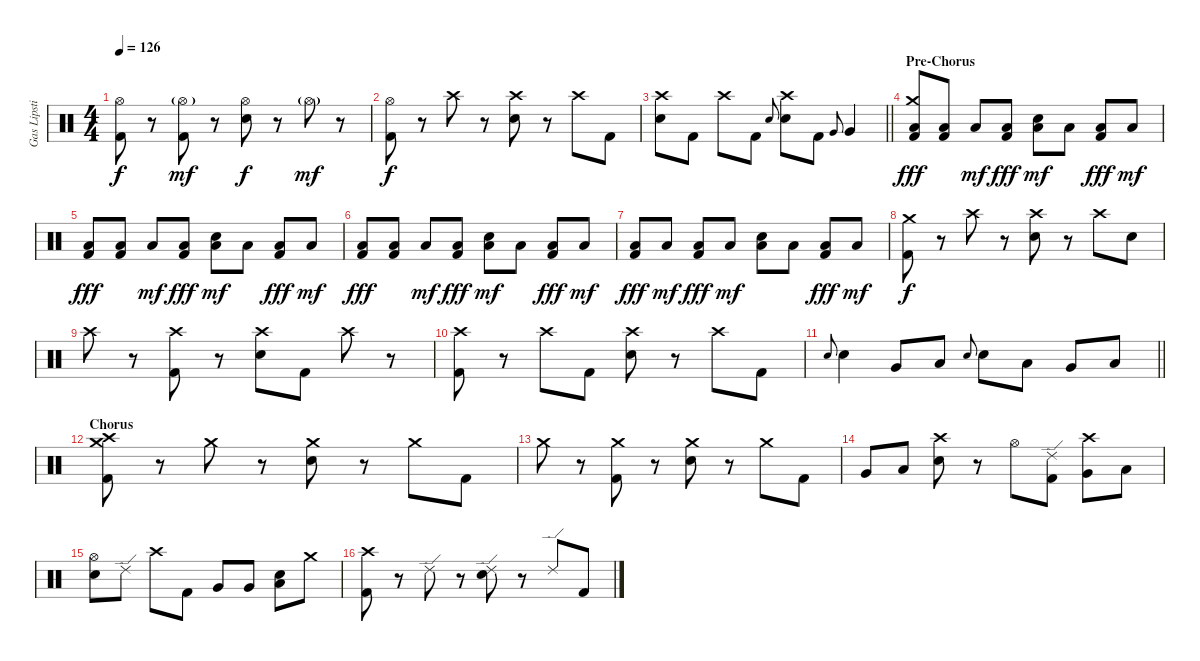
\track ("Gas Lipstick (Drums)" "Gas Lipsti") {instrument percussion}
\staff {score}
\articulation defaults
\ts (4 4)
\tempo 126
\clef neutral
\ks c
("Hi-Hat (open)" "Kick (hit) 2").8{dy f} r.8 ("Hi-Hat (open)"{g} "Kick (hit) 2").8{dy mf} r.8 ("Hi-Hat (open)" "Snare (hit) 2").8{dy f} r.8 "Hi-Hat (open)"{g}.8{dy mf} r.8 |
("Hi-Hat (open)" "Kick (hit) 2").8{dy f} r.8 "Crash high (hit)".8 r.8 ("Crash high (hit)" "Snare (hit) 2").8 r.8 "Crash high (hit)".8 "Kick (hit) 2".8 |
\barLineRight lightlight
("Crash high (hit)" "Snare (hit) 2").8 "Kick (hit) 2".8 "Crash high (hit)".8 "Kick (hit) 2".8 "Snare (hit) 2".8{gr onbeat} ("Crash high (hit)" "Snare (hit) 2").8 "Kick (hit) 2".8 "Very Low Tom (hit)".8{gr onbeat} "Very Low Tom (hit)".4 |
\section ("" "Pre-Chorus")
("Crash medium (hit)" "Low Floor Tom (hit)" "Kick (hit) 2").8{dy fff} ("Low Floor Tom (hit)" "Kick (hit) 2").8 "Low Floor Tom (hit)".8{dy mf} ("Low Floor Tom (hit)" "Kick (hit) 2").8{dy fff} ("Low Floor Tom (hit)" "Snare (hit) 2").8{dy mf} "Low Floor Tom (hit)".8 ("Low Floor Tom (hit)" "Kick (hit) 2").8{dy fff} "Low Floor Tom (hit)".8{dy mf} |
("Low Floor Tom (hit)" "Kick (hit) 2").8{dy fff} ("Low Floor Tom (hit)" "Kick (hit) 2").8 "Low Floor Tom (hit)".8{dy mf} ("Low Floor Tom (hit)" "Kick (hit) 2").8{dy fff} ("Low Floor Tom (hit)" "Snare (hit) 2").8{dy mf} "Low Floor Tom (hit)".8 ("Low Floor Tom (hit)" "Kick (hit) 2").8{dy fff} "Low Floor Tom (hit)".8{dy mf} |
("Low Floor Tom (hit)" "Kick (hit) 2").8{dy fff} ("Low Floor Tom (hit)" "Kick (hit) 2").8 "Low Floor Tom (hit)".8{dy mf} ("Low Floor Tom (hit)" "Kick (hit) 2").8{dy fff} ("Low Floor Tom (hit)" "Snare (hit) 2").8{dy mf} "Low Floor Tom (hit)".8 ("Low Floor Tom (hit)" "Kick (hit) 2").8{dy fff} "Low Floor Tom (hit)".8{dy mf} |
("Low Floor Tom (hit)" "Kick (hit) 2").8{dy fff} "Low Floor Tom (hit)".8{dy mf} ("Low Floor Tom (hit)" "Kick (hit) 2").8{dy fff} "Low Floor Tom (hit)".8{dy mf} ("Low Floor Tom (hit)" "Snare (hit) 2").8 "Low Floor Tom (hit)".8 ("Low Floor Tom (hit)" "Kick (hit) 2").8{dy fff} "Low Floor Tom (hit)".8{dy mf} |
("Crash medium (hit)" "Kick (hit) 2").8{dy f} r.8 "Crash high (hit)".8 r.8 ("Crash high (hit)" "Snare (hit) 2").8 r.8 "Crash high (hit)".8 "Snare (hit) 2".8 |
"Crash high (hit)".8 r.8 ("Crash high (hit)" "Kick (hit) 2").8 r.8 ("Crash high (hit)" "Snare (hit) 2").8 "Kick (hit) 2".8 "Crash high (hit)".8 r.8 |
("Crash high (hit)" "Kick (hit) 2").8 r.8 "Crash high (hit)".8 "Kick (hit) 2".8 ("Crash high (hit)" "Snare (hit) 2").8 r.8 "Crash high (hit)".8 "Kick (hit) 2".8 |
\barLineRight lightlight "Snare (hit) 2".8{gr onbeat} "Snare (hit) 2".4 "Very Low Tom (hit)".8 "Low Floor Tom (hit)".8 "Snare (hit) 2".8{gr onbeat} "Snare (hit) 2".8 "Low Tom (hit)".8 "Very Low Tom (hit)".8 "Low Floor Tom (hit)".8
|
\section ("" "Chorus")
("Crash high (hit)" "Crash medium (hit)" "Kick (hit) 2").8 r.8 "Crash medium (hit)".8 r.8 ("Crash medium (hit)" "Snare (hit) 2").8 r.8 "Crash medium (hit)".8 "Kick (hit) 2".8 |
"Crash medium (hit)".8 r.8 ("Crash medium (hit)" "Kick (hit) 2").8 r.8 ("Crash medium (hit)" "Snare (hit) 2").8 r.8 "Crash medium (hit)".8 "Kick (hit) 2".8 |
"Very Low Tom (hit)".8 "Low Floor Tom (hit)".8 ("Crash high (hit)" "Snare (hit) 2").8 r.8 "Hi-Hat (open)".8 ("Ride (edge) 2" "Kick (hit) 2").8 ("Crash high (hit)" "Very Low Tom (hit)").8 "Low Floor Tom (hit)".8 |
("Hi-Hat (open)" "Snare (hit) 2").8 "Ride (edge) 2".8 "Crash high (hit)".8 "Kick (hit) 2".8 "Very Low Tom (hit)".8 "Very Low Tom (hit)".8 ("Low Floor Tom (hit)" "Snare (hit) 2").8 "Crash medium (hit)".8 |
("Crash high (hit)" "Kick (hit) 2").8 r.8 "Ride (edge) 2".8 r.8 ("Ride (edge) 2" "Snare (hit) 2").8 r.8 "Ride (edge) 2".8 "Kick (hit) 2".8
